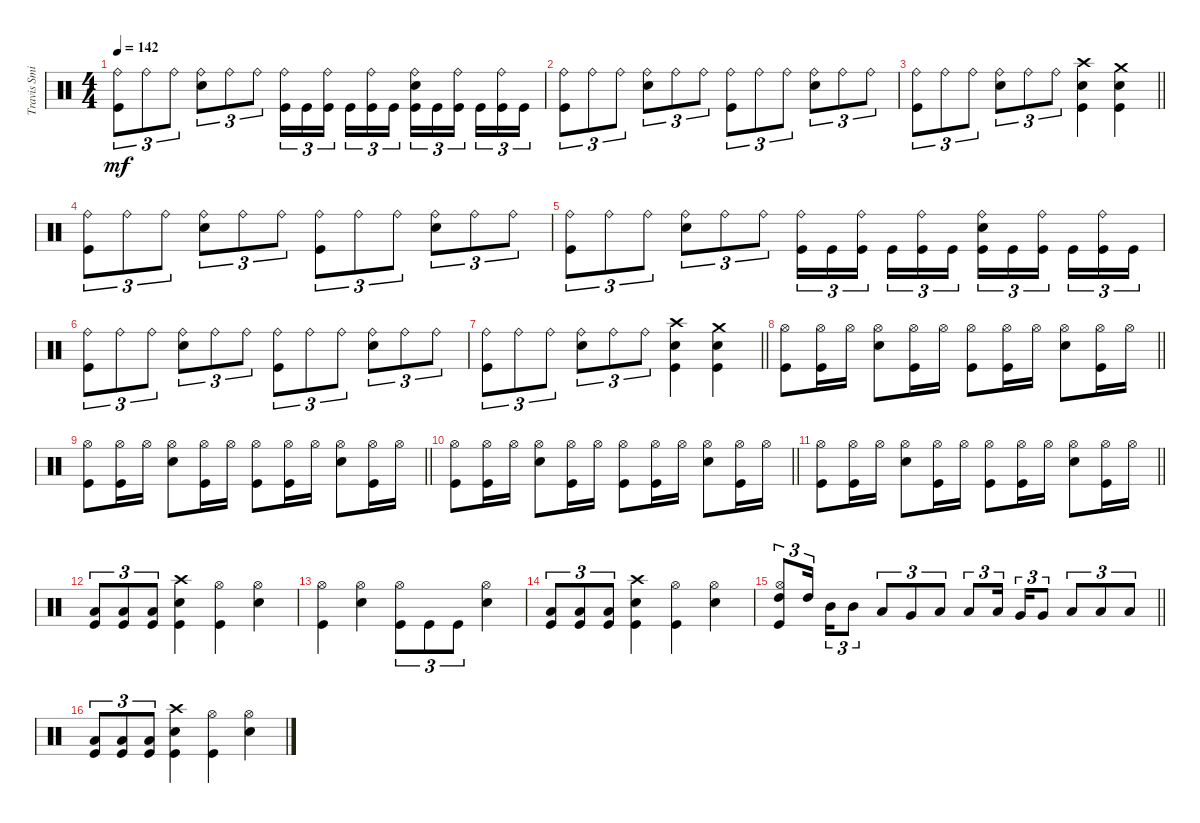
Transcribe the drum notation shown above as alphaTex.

\track ("Travis Smith" "Travis Smi") {instrument percussion}
\staff {score}
\articulation defaults
\ts (4 4)
\tempo 142
\clef neutral
\ks c
("Ride (bell)" "Kick (hit)").8{tu (3 2) dy mf} "Ride (bell)".8{tu (3 2)} "Ride (bell)".8{tu (3 2)} ("Ride (bell)" "Snare (hit) 2").8{tu (3 2)} "Ride (bell)".8{tu (3 2)} "Ride (bell)".8{tu (3 2)} ("Ride (bell)" "Kick (hit)").16{tu (3 2)} "Kick (hit)".16{tu (3 2)} ("Ride (bell)" "Kick (hit)").16{tu (3 2)} "Kick (hit)".16{tu (3 2)} ("Ride (bell)" "Kick (hit)").16{tu (3 2)} "Kick (hit)".16{tu (3 2)} ("Ride (bell)" "Snare (hit) 2" "Kick (hit)").16{tu (3 2)} "Kick (hit)".16{tu (3 2)} ("Ride (bell)" "Kick (hit)").16{tu (3 2)} "Kick (hit)".16{tu (3 2)} ("Ride (bell)" "Kick (hit)").16{tu (3 2)} "Kick (hit)".16{tu (3 2)} |
("Ride (bell)" "Kick (hit)").8{tu (3 2)} "Ride (bell)".8{tu (3 2)} "Ride (bell)".8{tu (3 2)} ("Ride (bell)" "Snare (hit) 2").8{tu (3 2)} "Ride (bell)".8{tu (3 2)} "Ride (bell)".8{tu (3 2)} ("Ride (bell)" "Kick (hit)").8{tu (3 2)} "Ride (bell)".8{tu (3 2)} "Ride (bell)".8{tu (3 2)} ("Ride (bell)" "Snare (hit) 2").8{tu (3 2)} "Ride (bell)".8{tu (3 2)} "Ride (bell)".8{tu (3 2)} |
\barLineRight lightlight
("Ride (bell)" "Kick (hit)").8{tu (3 2)} "Ride (bell)".8{tu (3 2)} "Ride (bell)".8{tu (3 2)} ("Ride (bell)" "Snare (hit) 2").8{tu (3 2)} "Ride (bell)".8{tu (3 2)} "Ride (bell)".8{tu (3 2)} ("Crash high (hit)" "Snare (hit) 2" "Kick (hit)").4 ("Crash medium (hit)" "Snare (hit) 2" "Kick (hit)").4 |
\section ("" "")
("Ride (bell)" "Kick (hit)").8{tu (3 2)} "Ride (bell)".8{tu (3 2)} "Ride (bell)".8{tu (3 2)} ("Ride (bell)" "Snare (hit) 2").8{tu (3 2)} "Ride (bell)".8{tu (3 2)} "Ride (bell)".8{tu (3 2)} ("Ride (bell)" "Kick (hit)").8{tu (3 2)} "Ride (bell)".8{tu (3 2)} "Ride (bell)".8{tu (3 2)} ("Ride (bell)" "Snare (hit) 2").8{tu (3 2)} "Ride (bell)".8{tu (3 2)} "Ride (bell)".8{tu (3 2)} |
("Ride (bell)" "Kick (hit)").8{tu (3 2)} "Ride (bell)".8{tu (3 2)} "Ride (bell)".8{tu (3 2)} ("Ride (bell)" "Snare (hit) 2").8{tu (3 2)} "Ride (bell)".8{tu (3 2)} "Ride (bell)".8{tu (3 2)} ("Ride (bell)" "Kick (hit)").16{tu (3 2)} "Kick (hit)".16{tu (3 2)} ("Ride (bell)" "Kick (hit)").16{tu (3 2)} "Kick (hit)".16{tu (3 2)} ("Ride (bell)" "Kick (hit)").16{tu (3 2)} "Kick (hit)".16{tu (3 2)} ("Ride (bell)" "Snare (hit) 2" "Kick (hit)").16{tu (3 2)} "Kick (hit)".16{tu (3 2)} ("Ride (bell)" "Kick (hit)").16{tu (3 2)} "Kick (hit)".16{tu (3 2)} ("Ride (bell)" "Kick (hit)").16{tu (3 2)} "Kick (hit)".16{tu (3 2)} |
("Ride (bell)" "Kick (hit)").8{tu (3 2)} "Ride (bell)".8{tu (3 2)} "Ride (bell)".8{tu (3 2)} ("Ride (bell)" "Snare (hit) 2").8{tu (3 2)} "Ride (bell)".8{tu (3 2)} "Ride (bell)".8{tu (3 2)} ("Ride (bell)" "Kick (hit)").8{tu (3 2)} "Ride (bell)".8{tu (3 2)} "Ride (bell)".8{tu (3 2)} ("Ride (bell)" "Snare (hit) 2").8{tu (3 2)} "Ride (bell)".8{tu (3 2)} "Ride (bell)".8{tu (3 2)} |
\barLineRight lightlight
("Ride (bell)" "Kick (hit)").8{tu (3 2)} "Ride (bell)".8{tu (3 2)} "Ride (bell)".8{tu (3 2)} ("Ride (bell)" "Snare (hit) 2").8{tu (3 2)} "Ride (bell)".8{tu (3 2)} "Ride (bell)".8{tu (3 2)} ("Crash high (hit)" "Snare (hit) 2" "Kick (hit)").4 ("Crash medium (hit)" "Snare (hit) 2" "Kick (hit)").4 |
\barLineRight lightlight
("Hi-Hat (open)" "Kick (hit)").8 ("Hi-Hat (open)" "Kick (hit)").16 "Hi-Hat (open)".16 ("Hi-Hat (open)" "Snare (hit) 2").8 ("Hi-Hat (open)" "Kick (hit)").16 "Hi-Hat (open)".16 ("Hi-Hat (open)" "Kick (hit)").8 ("Hi-Hat (open)" "Kick (hit)").16 "Hi-Hat (open)".16 ("Hi-Hat (open)" "Snare (hit) 2").8 ("Hi-Hat (open)" "Kick (hit)").16 "Hi-Hat (open)".16 |
\barLineRight lightlight
("Hi-Hat (open)" "Kick (hit)").8 ("Hi-Hat (open)" "Kick (hit)").16 "Hi-Hat (open)".16 ("Hi-Hat (open)" "Snare (hit) 2").8 ("Hi-Hat (open)" "Kick (hit)").16 "Hi-Hat (open)".16 ("Hi-Hat (open)" "Kick (hit)").8 ("Hi-Hat (open)" "Kick (hit)").16 "Hi-Hat (open)".16 ("Hi-Hat (open)" "Snare (hit) 2").8 ("Hi-Hat (open)" "Kick (hit)").16 "Hi-Hat (open)".16 |
\barLineRight lightlight
("Hi-Hat (open)" "Kick (hit)").8 ("Hi-Hat (open)" "Kick (hit)").16 "Hi-Hat (open)".16 ("Hi-Hat (open)" "Snare (hit) 2").8 ("Hi-Hat (open)" "Kick (hit)").16 "Hi-Hat (open)".16 ("Hi-Hat (open)" "Kick (hit)").8 ("Hi-Hat (open)" "Kick (hit)").16 "Hi-Hat (open)".16 ("Hi-Hat (open)" "Snare (hit) 2").8 ("Hi-Hat (open)" "Kick (hit)").16 "Hi-Hat (open)".16 |
\barLineRight lightlight
("Hi-Hat (open)" "Kick (hit)").8 ("Hi-Hat (open)" "Kick (hit)").16 "Hi-Hat (open)".16 ("Hi-Hat (open)" "Snare (hit) 2").8 ("Hi-Hat (open)" "Kick (hit)").16 "Hi-Hat (open)".16 ("Hi-Hat (open)" "Kick (hit)").8 ("Hi-Hat (open)" "Kick (hit)").16 "Hi-Hat (open)".16 ("Hi-Hat (open)" "Snare (hit) 2").8 ("Hi-Hat (open)" "Kick (hit)").16 "Hi-Hat (open)".16 |
\section ("" "")
("Low Tom (hit)" "Kick (hit)").8{tu (3 2)} ("Low Tom (hit)" "Kick (hit)").8{tu (3 2)} ("Low Tom (hit)" "Kick (hit)").8{tu (3 2)} ("Crash high (hit)" "Snare (hit) 2" "Kick (hit)").4 ("Hi-Hat (open)" "Kick (hit)").4 ("Hi-Hat (open)" "Snare (hit) 2").4 |
("Hi-Hat (open)" "Kick (hit)").4 ("Hi-Hat (open)" "Snare (hit) 2").4 ("Hi-Hat (open)" "Kick (hit)").8{tu (3 2)} "Kick (hit)".8{tu (3 2)} "Kick (hit)".8{tu (3 2)} ("Hi-Hat (open)" "Snare (hit) 2").4 |
("Low Tom (hit)" "Kick (hit)").8{tu (3 2)} ("Low Tom (hit)" "Kick (hit)").8{tu (3 2)} ("Low Tom (hit)" "Kick (hit)").8{tu (3 2)} ("Crash high (hit)" "Snare (hit) 2" "Kick (hit)").4 ("Hi-Hat (open)" "Kick (hit)").4 ("Hi-Hat (open)" "Snare (hit) 2").4 |
\barLineRight lightlight
("High Tom (hit)" "Hi-Hat (open)" "Kick (hit)").8{tu (3 2)} "High Tom (hit)".16{tu (3 2)} "Mid Tom (hit)".16{tu (3 2)} "Mid Tom (hit)".8{tu (3 2)} "Low Tom (hit)".8{tu (3 2)} "Very Low Tom (hit)".8{tu (3 2)} "Low Floor Tom (hit)".8{tu (3 2)} "Low Tom (hit)".8{tu (3 2)} "Low Tom (hit)".16{tu (3 2)} "Very Low Tom (hit)".16{tu (3 2)} "Very Low Tom (hit)".8{tu (3 2)} "Low Floor Tom (hit)".8{tu (3 2)} "Low Floor Tom (hit)".8{tu (3 2)} "Low Floor Tom (hit)".8{tu (3 2)} |
("Low Tom (hit)" "Kick (hit)").8{tu (3 2)} ("Low Tom (hit)" "Kick (hit)").8{tu (3 2)} ("Low Tom (hit)" "Kick (hit)").8{tu (3 2)} ("Crash high (hit)" "Snare (hit) 2" "Kick (hit)").4 ("Hi-Hat (open)" "Kick (hit)").4 ("Hi-Hat (open)" "Snare (hit) 2").4
